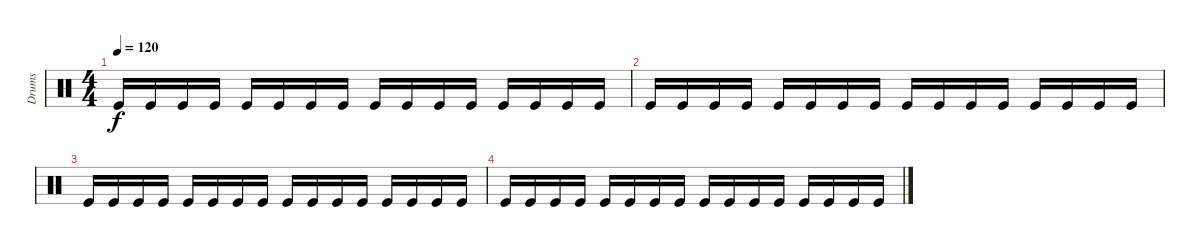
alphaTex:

\track ("Drums" "Drums") {instrument percussion}
\staff {score}
\articulation defaults
\ts (4 4)
\tempo 120
\clef neutral
\ks c "Kick (hit)".16{dy f volume 16} "Kick (hit)".16 "Kick (hit)".16 "Kick (hit)".16 "Kick (hit)".16 "Kick (hit)".16 "Kick (hit)".16 "Kick (hit)".16 "Kick (hit)".16{volume 12} "Kick (hit)".16 "Kick (hit)".16 "Kick (hit)".16 "Kick (hit)".16 "Kick (hit)".16 "Kick (hit)".16 "Kick (hit)".16
|
"Kick (hit)".16{volume 9} "Kick (hit)".16 "Kick (hit)".16 "Kick (hit)".16 "Kick (hit)".16 "Kick (hit)".16 "Kick (hit)".16 "Kick (hit)".16 "Kick (hit)".16{volume 6} "Kick (hit)".16 "Kick (hit)".16 "Kick (hit)".16 "Kick (hit)".16 "Kick (hit)".16 "Kick (hit)".16 "Kick (hit)".16 |
"Kick (hit)".16{volume 4} "Kick (hit)".16 "Kick (hit)".16 "Kick (hit)".16 "Kick (hit)".16 "Kick (hit)".16 "Kick (hit)".16 "Kick (hit)".16 "Kick (hit)".16{volume 3} "Kick (hit)".16 "Kick (hit)".16 "Kick (hit)".16 "Kick (hit)".16 "Kick (hit)".16 "Kick (hit)".16 "Kick (hit)".16 |
"Kick (hit)".16{volume 2} "Kick (hit)".16 "Kick (hit)".16 "Kick (hit)".16 "Kick (hit)".16 "Kick (hit)".16 "Kick (hit)".16 "Kick (hit)".16 "Kick (hit)".16{volume 1} "Kick (hit)".16 "Kick (hit)".16 "Kick (hit)".16 "Kick (hit)".16 "Kick (hit)".16 "Kick (hit)".16 "Kick (hit)".16
